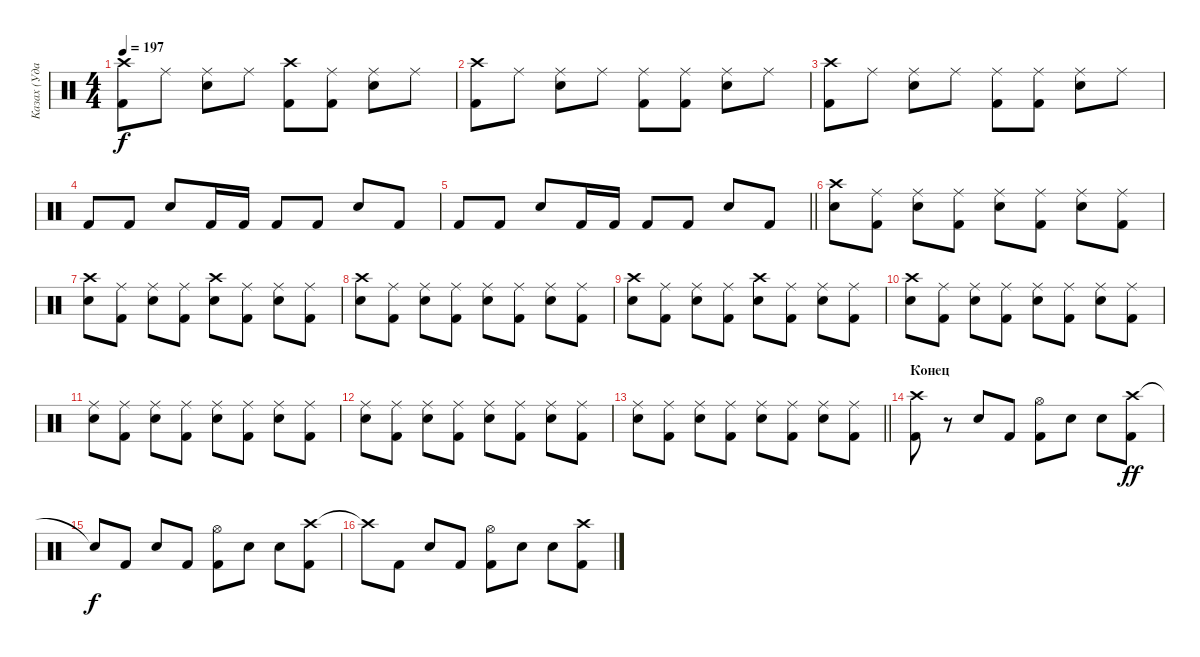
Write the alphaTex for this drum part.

\track ("Казах (Ударные)" "Казах (Уда") {instrument percussion}
\staff {score}
\articulation defaults
\ts (4 4)
\tempo 197
\clef neutral
\ks c
("Crash high (hit)" "Kick (hit) 2").8{dy f} "Ride (middle)".8 ("Ride (middle)" "Electric Snare (hit)").8 "Ride (middle)".8 ("Crash high (hit)" "Kick (hit) 2").8 ("Ride (middle)" "Kick (hit) 2").8 ("Ride (middle)" "Electric Snare (hit)").8 "Ride (middle)".8 |
("Crash high (hit)" "Kick (hit) 2").8 "Ride (middle)".8 ("Ride (middle)" "Electric Snare (hit)").8 "Ride (middle)".8 ("Ride (middle)" "Kick (hit) 2").8 ("Ride (middle)" "Kick (hit) 2").8 ("Ride (middle)" "Electric Snare (hit)").8 "Ride (middle)".8 |
("Crash high (hit)" "Kick (hit) 2").8 "Ride (middle)".8 ("Ride (middle)" "Electric Snare (hit)").8 "Ride (middle)".8 ("Ride (middle)" "Kick (hit) 2").8 ("Ride (middle)" "Kick (hit) 2").8 ("Ride (middle)" "Electric Snare (hit)").8 "Ride (middle)".8 |
"Kick (hit) 2".8 "Kick (hit) 2".8 "Electric Snare (hit)".8 "Kick (hit) 2".16 "Kick (hit) 2".16 "Kick (hit) 2".8 "Kick (hit) 2".8 "Electric Snare (hit)".8 "Kick (hit) 2".8 |
\barLineRight lightlight "Kick (hit) 2".8 "Kick (hit) 2".8 "Electric Snare (hit)".8 "Kick (hit) 2".16 "Kick (hit) 2".16 "Kick (hit) 2".8 "Kick (hit) 2".8 "Electric Snare (hit)".8 "Kick (hit) 2".8
|
\section ("" "")
("Crash high (hit)" "Electric Snare (hit)").8 ("Ride (middle)" "Kick (hit) 2").8 ("Ride (middle)" "Electric Snare (hit)").8 ("Ride (middle)" "Kick (hit) 2").8 ("Ride (middle)" "Electric Snare (hit)").8 ("Ride (middle)" "Kick (hit) 2").8 ("Ride (middle)" "Electric Snare (hit)").8 ("Ride (middle)" "Kick (hit) 2").8 |
("Crash high (hit)" "Electric Snare (hit)").8 ("Ride (middle)" "Kick (hit) 2").8 ("Ride (middle)" "Electric Snare (hit)").8 ("Ride (middle)" "Kick (hit) 2").8 ("Crash high (hit)" "Electric Snare (hit)").8 ("Ride (middle)" "Kick (hit) 2").8 ("Ride (middle)" "Electric Snare (hit)").8 ("Ride (middle)" "Kick (hit) 2").8 |
("Crash high (hit)" "Electric Snare (hit)").8 ("Ride (middle)" "Kick (hit) 2").8 ("Ride (middle)" "Electric Snare (hit)").8 ("Ride (middle)" "Kick (hit) 2").8 ("Ride (middle)" "Electric Snare (hit)").8 ("Ride (middle)" "Kick (hit) 2").8 ("Ride (middle)" "Electric Snare (hit)").8 ("Ride (middle)" "Kick (hit) 2").8 |
("Crash high (hit)" "Electric Snare (hit)").8 ("Ride (middle)" "Kick (hit) 2").8 ("Ride (middle)" "Electric Snare (hit)").8 ("Ride (middle)" "Kick (hit) 2").8 ("Crash high (hit)" "Electric Snare (hit)").8 ("Ride (middle)" "Kick (hit) 2").8 ("Ride (middle)" "Electric Snare (hit)").8 ("Ride (middle)" "Kick (hit) 2").8 |
("Crash high (hit)" "Electric Snare (hit)").8 ("Ride (middle)" "Kick (hit) 2").8 ("Ride (middle)" "Electric Snare (hit)").8 ("Ride (middle)" "Kick (hit) 2").8 ("Ride (middle)" "Electric Snare (hit)").8 ("Ride (middle)" "Kick (hit) 2").8 ("Ride (middle)" "Electric Snare (hit)").8 ("Ride (middle)" "Kick (hit) 2").8 |
("Ride (middle)" "Electric Snare (hit)").8 ("Ride (middle)" "Kick (hit) 2").8 ("Ride (middle)" "Electric Snare (hit)").8 ("Ride (middle)" "Kick (hit) 2").8 ("Ride (middle)" "Electric Snare (hit)").8 ("Ride (middle)" "Kick (hit) 2").8 ("Ride (middle)" "Electric Snare (hit)").8 ("Ride (middle)" "Kick (hit) 2").8 |
("Ride (middle)" "Electric Snare (hit)").8 ("Ride (middle)" "Kick (hit) 2").8 ("Ride (middle)" "Electric Snare (hit)").8 ("Ride (middle)" "Kick (hit) 2").8 ("Ride (middle)" "Electric Snare (hit)").8 ("Ride (middle)" "Kick (hit) 2").8 ("Ride (middle)" "Electric Snare (hit)").8 ("Ride (middle)" "Kick (hit) 2").8 |
\barLineRight lightlight
("Ride (middle)" "Electric Snare (hit)").8 ("Ride (middle)" "Kick (hit) 2").8 ("Ride (middle)" "Electric Snare (hit)").8 ("Ride (middle)" "Kick (hit) 2").8 ("Ride (middle)" "Electric Snare (hit)").8 ("Ride (middle)" "Kick (hit) 2").8 ("Ride (middle)" "Electric Snare (hit)").8 ("Ride (middle)" "Kick (hit) 2").8 |
\section ("" "Конец")
("Crash high (hit)" "Kick (hit) 2").8 r.8 "Electric Snare (hit)".8 "Kick (hit) 2".8 ("Hi-Hat (open)" "Kick (hit) 2").8 "Electric Snare (hit)".8 "Electric Snare (hit)".8 ("Crash high (hit)" "Kick (hit) 2").8{dy ff} |
"Snare (hit)"{t}.8{dy f} "Kick (hit) 2".8 "Electric Snare (hit)".8 "Kick (hit) 2".8 ("Hi-Hat (open)" "Kick (hit) 2").8 "Electric Snare (hit)".8 "Electric Snare (hit)".8 ("Crash high (hit)" "Kick (hit) 2").8 |
"Crash high (hit)"{t}.8 "Kick (hit) 2".8 "Electric Snare (hit)".8 "Kick (hit) 2".8 ("Hi-Hat (open)" "Kick (hit) 2").8 "Electric Snare (hit)".8 "Electric Snare (hit)".8 ("Crash high (hit)" "Kick (hit) 2").8
